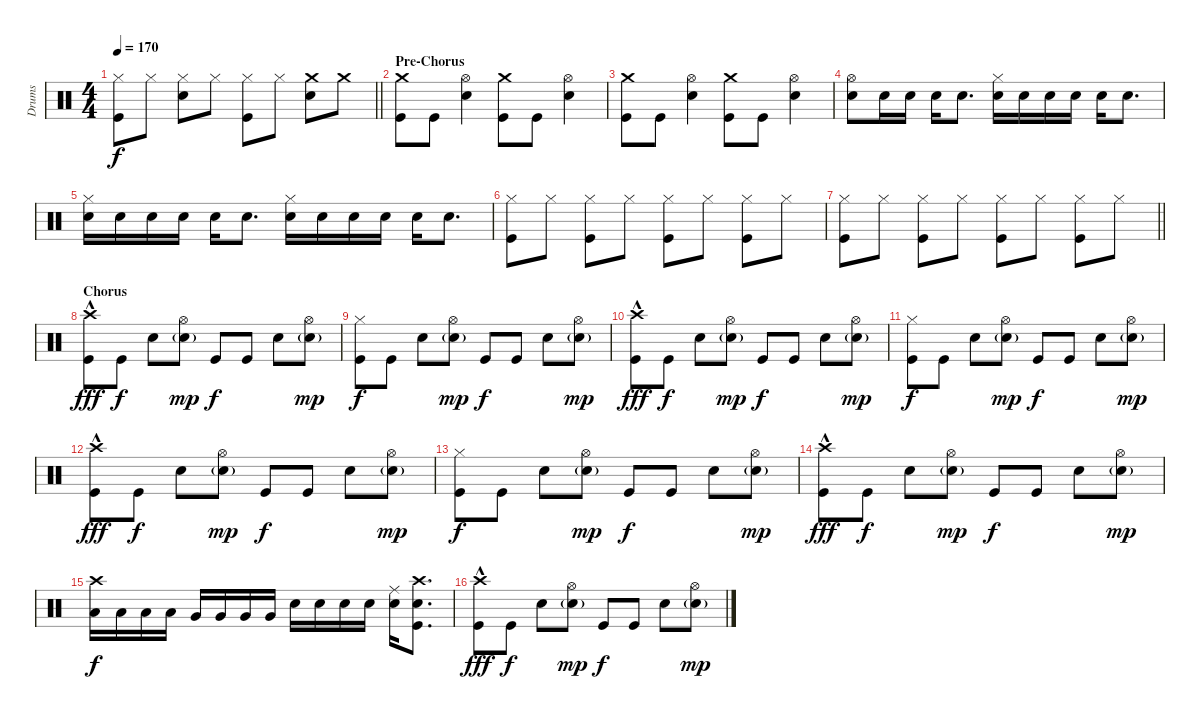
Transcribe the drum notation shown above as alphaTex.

\track ("Drums" "Drums") {instrument percussion}
\staff {score}
\articulation defaults
\ts (4 4)
\tempo 170
\clef neutral
\barLineRight lightlight
\ks c
("Hi-Hat (closed)" "Kick (hit)").8{dy f} "Hi-Hat (closed)".8 ("Hi-Hat (closed)" "Electric Snare (hit)").8 "Hi-Hat (closed)".8 ("Hi-Hat (closed)" "Kick (hit)").8 "Hi-Hat (closed)".8 ("Crash medium (hit)" "Electric Snare (hit)").8 "Crash medium (hit)".8 |
\section ("" "Pre-Chorus")
("Crash medium (hit)" "Kick (hit)").8 "Kick (hit)".8 ("Hi-Hat (open)" "Electric Snare (hit)").4 ("Crash medium (hit)" "Kick (hit)").8 "Kick (hit)".8 ("Hi-Hat (open)" "Electric Snare (hit)").4 |
("Crash medium (hit)" "Kick (hit)").8 "Kick (hit)".8 ("Hi-Hat (open)" "Electric Snare (hit)").4 ("Crash medium (hit)" "Kick (hit)").8 "Kick (hit)".8 ("Hi-Hat (open)" "Electric Snare (hit)").4 |
("Hi-Hat (open)" "Electric Snare (hit)").8 "Electric Snare (hit)".16 "Electric Snare (hit)".16 "Electric Snare (hit)".16 "Electric Snare (hit)".8{d} ("Hi-Hat (closed)" "Electric Snare (hit)").16 "Electric Snare (hit)".16 "Electric Snare (hit)".16 "Electric Snare (hit)".16 "Electric Snare (hit)".16 "Electric Snare (hit)".8{d} |
("Hi-Hat (closed)" "Electric Snare (hit)").16 "Electric Snare (hit)".16 "Electric Snare (hit)".16 "Electric Snare (hit)".16 "Electric Snare (hit)".16 "Electric Snare (hit)".8{d} ("Hi-Hat (closed)" "Electric Snare (hit)").16 "Electric Snare (hit)".16 "Electric Snare (hit)".16 "Electric Snare (hit)".16 "Electric Snare (hit)".16 "Electric Snare (hit)".8{d} |
("Hi-Hat (closed)" "Kick (hit)").8 "Hi-Hat (closed)".8 ("Hi-Hat (closed)" "Kick (hit)").8 "Hi-Hat (closed)".8 ("Hi-Hat (closed)" "Kick (hit)").8 "Hi-Hat (closed)".8 ("Hi-Hat (closed)" "Kick (hit)").8 "Hi-Hat (closed)".8 |
\barLineRight lightlight
("Hi-Hat (closed)" "Kick (hit)").8 "Hi-Hat (closed)".8 ("Hi-Hat (closed)" "Kick (hit)").8 "Hi-Hat (closed)".8 ("Hi-Hat (closed)" "Kick (hit)").8 "Hi-Hat (closed)".8 ("Hi-Hat (closed)" "Kick (hit)").8 "Hi-Hat (closed)".8 |
\section ("" "Chorus")
("Crash high (hit)"{hac} "Kick (hit)").8{dy fff} "Kick (hit)".8{dy f} "Electric Snare (hit)".8 ("Hi-Hat (open)" "Electric Snare (hit)"{g}).8{dy mp} "Kick (hit)".8{dy f} "Kick (hit)".8 "Electric Snare (hit)".8 ("Hi-Hat (open)" "Electric Snare (hit)"{g}).8{dy mp} |
("Hi-Hat (closed)" "Kick (hit)").8{dy f} "Kick (hit)".8 "Electric Snare (hit)".8 ("Hi-Hat (open)" "Electric Snare (hit)"{g}).8{dy mp} "Kick (hit)".8{dy f} "Kick (hit)".8 "Electric Snare (hit)".8 ("Hi-Hat (open)" "Electric Snare (hit)"{g}).8{dy mp} |
("Crash high (hit)"{hac} "Kick (hit)").8{dy fff} "Kick (hit)".8{dy f} "Electric Snare (hit)".8 ("Hi-Hat (open)" "Electric Snare (hit)"{g}).8{dy mp} "Kick (hit)".8{dy f} "Kick (hit)".8 "Electric Snare (hit)".8 ("Hi-Hat (open)" "Electric Snare (hit)"{g}).8{dy mp} |
("Hi-Hat (closed)" "Kick (hit)").8{dy f} "Kick (hit)".8 "Electric Snare (hit)".8 ("Hi-Hat (open)" "Electric Snare (hit)"{g}).8{dy mp} "Kick (hit)".8{dy f} "Kick (hit)".8 "Electric Snare (hit)".8 ("Hi-Hat (open)" "Electric Snare (hit)"{g}).8{dy mp} |
("Crash high (hit)"{hac} "Kick (hit)").8{dy fff} "Kick (hit)".8{dy f} "Electric Snare (hit)".8 ("Hi-Hat (open)" "Electric Snare (hit)"{g}).8{dy mp} "Kick (hit)".8{dy f} "Kick (hit)".8 "Electric Snare (hit)".8 ("Hi-Hat (open)" "Electric Snare (hit)"{g}).8{dy mp} |
("Hi-Hat (closed)" "Kick (hit)").8{dy f} "Kick (hit)".8 "Electric Snare (hit)".8 ("Hi-Hat (open)" "Electric Snare (hit)"{g}).8{dy mp} "Kick (hit)".8{dy f} "Kick (hit)".8 "Electric Snare (hit)".8 ("Hi-Hat (open)" "Electric Snare (hit)"{g}).8{dy mp} |
("Crash high (hit)"{hac} "Kick (hit)").8{dy fff} "Kick (hit)".8{dy f} "Electric Snare (hit)".8 ("Hi-Hat (open)" "Electric Snare (hit)"{g}).8{dy mp} "Kick (hit)".8{dy f} "Kick (hit)".8 "Electric Snare (hit)".8 ("Hi-Hat (open)" "Electric Snare (hit)"{g}).8{dy mp} |
("Crash high (hit)" "Low Floor Tom (hit)").16{dy f} "Low Floor Tom (hit)".16 "Low Floor Tom (hit)".16 "Low Floor Tom (hit)".16 "Very Low Tom (hit)".16 "Very Low Tom (hit)".16 "Very Low Tom (hit)".16 "Very Low Tom (hit)".16 "Electric Snare (hit)".16 "Electric Snare (hit)".16 "Electric Snare (hit)".16 "Electric Snare (hit)".16 ("Ride (middle)" "Electric Snare (hit)").16 ("Crash high (hit)" "Electric Snare (hit)" "Kick (hit)").8{d} |
("Crash high (hit)"{hac} "Kick (hit)").8{dy fff} "Kick (hit)".8{dy f} "Electric Snare (hit)".8 ("Hi-Hat (open)" "Electric Snare (hit)"{g}).8{dy mp} "Kick (hit)".8{dy f} "Kick (hit)".8 "Electric Snare (hit)".8 ("Hi-Hat (open)" "Electric Snare (hit)"{g}).8{dy mp}
